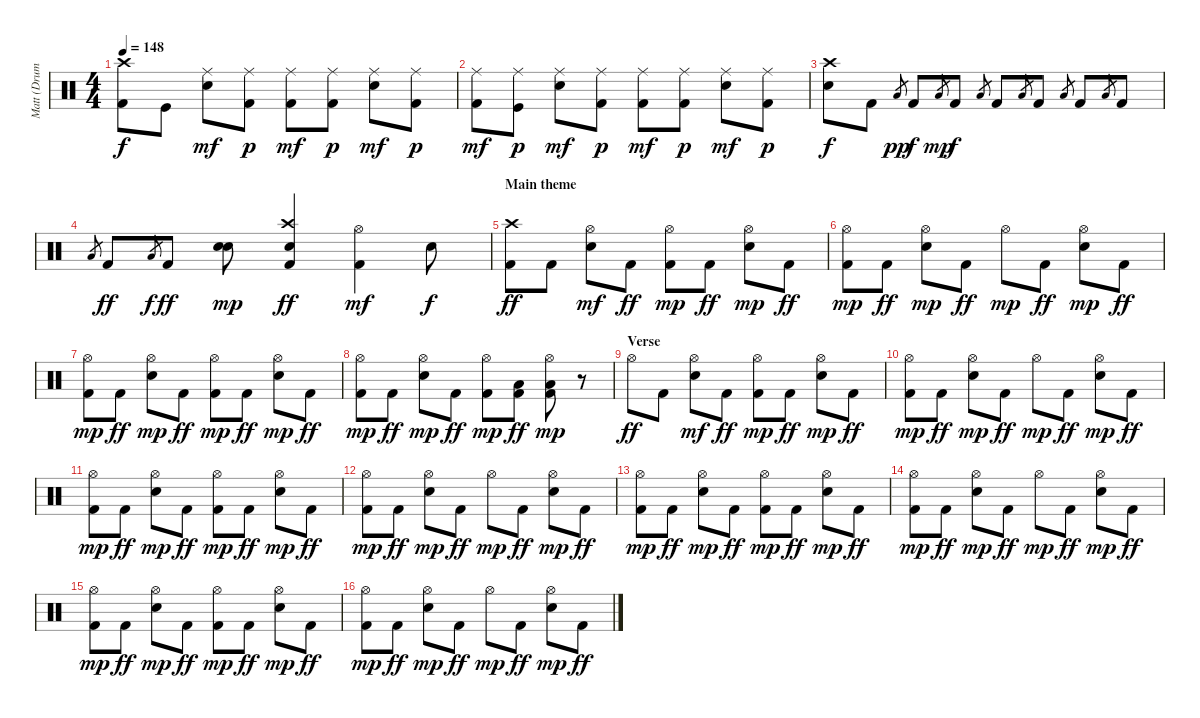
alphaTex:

\track ("Matt (Drums)" "Matt (Drum") {instrument percussion}
\staff {score}
\articulation defaults
\ts (4 4)
\tempo 148
\clef neutral
\ks c
("Kick (hit) 2" "Crash high (hit)").8{dy f} "Kick (hit)".8 ("Electric Snare (hit)" "Ride (middle)").8{dy mf} ("Kick (hit) 2" "Ride (middle)").8{dy p} ("Kick (hit) 2" "Ride (middle)").8{dy mf} ("Kick (hit) 2" "Ride (middle)").8{dy p} ("Electric Snare (hit)" "Ride (middle)").8{dy mf} ("Kick (hit) 2" "Ride (middle)").8{dy p} |
("Kick (hit) 2" "Ride (middle)").8{dy mf} ("Kick (hit)" "Ride (middle)").8{dy p} ("Electric Snare (hit)" "Ride (middle)").8{dy mf} ("Kick (hit) 2" "Ride (middle)").8{dy p} ("Kick (hit) 2" "Ride (middle)").8{dy mf} ("Kick (hit) 2" "Ride (middle)").8{dy p} ("Electric Snare (hit)" "Ride (middle)").8{dy mf} ("Kick (hit) 2" "Ride (middle)").8{dy p} |
("Electric Snare (hit)" "Crash high (hit)").8{dy f} "Kick (hit) 2".8 "Low Tom (hit)".8{gr dy pp} "Kick (hit) 2".8{dy f} "Low Tom (hit)".8{gr dy mp} "Kick (hit) 2".8{dy f} "Low Tom (hit)".8{gr} "Kick (hit) 2".8 "Low Tom (hit)".8{gr} "Kick (hit) 2".8 "Low Tom (hit)".8{gr} "Kick (hit) 2".8 "Low Tom (hit)".8{gr} "Kick (hit) 2".8 |
"Low Tom (hit)".8{gr} "Kick (hit) 2".8{dy ff} "Low Tom (hit)".8{gr dy f} "Kick (hit) 2".8{dy ff} ("Electric Snare (hit)" "Hand Clap (hit)").8{dy mp} ("Snare (hit) 2" "Kick (hit) 2" "Crash high (hit)").4{dy ff} ("Kick (hit) 2" "Hi-Hat (open)").4{dy mf} "Electric Snare (hit)".8{dy f} |
\section ("" "Main theme")
("Kick (hit) 2" "Crash high (hit)").8{dy ff} "Kick (hit) 2".8 ("Electric Snare (hit)" "Hi-Hat (open)").8{dy mf} "Kick (hit) 2".8{dy ff} ("Kick (hit) 2" "Hi-Hat (open)").8{dy mp} "Kick (hit) 2".8{dy ff} ("Electric Snare (hit)" "Hi-Hat (open)").8{dy mp} "Kick (hit) 2".8{dy ff} |
("Kick (hit) 2" "Hi-Hat (open)").8{dy mp} "Kick (hit) 2".8{dy ff} ("Electric Snare (hit)" "Hi-Hat (open)").8{dy mp} "Kick (hit) 2".8{dy ff} "Hi-Hat (open)".8{dy mp} "Kick (hit) 2".8{dy ff} ("Electric Snare (hit)" "Hi-Hat (open)").8{dy mp} "Kick (hit) 2".8{dy ff} |
("Kick (hit) 2" "Hi-Hat (open)").8{dy mp} "Kick (hit) 2".8{dy ff} ("Electric Snare (hit)" "Hi-Hat (open)").8{dy mp} "Kick (hit) 2".8{dy ff} ("Kick (hit) 2" "Hi-Hat (open)").8{dy mp} "Kick (hit) 2".8{dy ff} ("Electric Snare (hit)" "Hi-Hat (open)").8{dy mp} "Kick (hit) 2".8{dy ff} |
("Kick (hit) 2" "Hi-Hat (open)").8{dy mp} "Kick (hit) 2".8{dy ff} ("Electric Snare (hit)" "Hi-Hat (open)").8{dy mp} "Kick (hit) 2".8{dy ff} ("Kick (hit) 2" "Hi-Hat (open)").8{dy mp} ("Low Tom (hit)" "Kick (hit) 2").8{dy ff} ("Low Tom (hit)" "Kick (hit) 2" "Hi-Hat (open)").8{dy mp} r.8 |
\section ("" "Verse")
"Hi-Hat (open)".8{dy ff} "Kick (hit) 2".8 ("Electric Snare (hit)" "Hi-Hat (open)").8{dy mf} "Kick (hit) 2".8{dy ff} ("Kick (hit) 2" "Hi-Hat (open)").8{dy mp} "Kick (hit) 2".8{dy ff} ("Electric Snare (hit)" "Hi-Hat (open)").8{dy mp} "Kick (hit) 2".8{dy ff} |
("Kick (hit) 2" "Hi-Hat (open)").8{dy mp} "Kick (hit) 2".8{dy ff} ("Electric Snare (hit)" "Hi-Hat (open)").8{dy mp} "Kick (hit) 2".8{dy ff} "Hi-Hat (open)".8{dy mp} "Kick (hit) 2".8{dy ff} ("Electric Snare (hit)" "Hi-Hat (open)").8{dy mp} "Kick (hit) 2".8{dy ff} |
("Kick (hit) 2" "Hi-Hat (open)").8{dy mp} "Kick (hit) 2".8{dy ff} ("Electric Snare (hit)" "Hi-Hat (open)").8{dy mp} "Kick (hit) 2".8{dy ff} ("Kick (hit) 2" "Hi-Hat (open)").8{dy mp} "Kick (hit) 2".8{dy ff} ("Electric Snare (hit)" "Hi-Hat (open)").8{dy mp} "Kick (hit) 2".8{dy ff} |
("Kick (hit) 2" "Hi-Hat (open)").8{dy mp} "Kick (hit) 2".8{dy ff} ("Electric Snare (hit)" "Hi-Hat (open)").8{dy mp} "Kick (hit) 2".8{dy ff} "Hi-Hat (open)".8{dy mp} "Kick (hit) 2".8{dy ff} ("Electric Snare (hit)" "Hi-Hat (open)").8{dy mp} "Kick (hit) 2".8{dy ff} |
("Kick (hit) 2" "Hi-Hat (open)").8{dy mp} "Kick (hit) 2".8{dy ff} ("Electric Snare (hit)" "Hi-Hat (open)").8{dy mp} "Kick (hit) 2".8{dy ff} ("Kick (hit) 2" "Hi-Hat (open)").8{dy mp} "Kick (hit) 2".8{dy ff} ("Electric Snare (hit)" "Hi-Hat (open)").8{dy mp} "Kick (hit) 2".8{dy ff} |
("Kick (hit) 2" "Hi-Hat (open)").8{dy mp} "Kick (hit) 2".8{dy ff} ("Electric Snare (hit)" "Hi-Hat (open)").8{dy mp} "Kick (hit) 2".8{dy ff} "Hi-Hat (open)".8{dy mp} "Kick (hit) 2".8{dy ff} ("Electric Snare (hit)" "Hi-Hat (open)").8{dy mp} "Kick (hit) 2".8{dy ff} |
("Kick (hit) 2" "Hi-Hat (open)").8{dy mp} "Kick (hit) 2".8{dy ff} ("Electric Snare (hit)" "Hi-Hat (open)").8{dy mp} "Kick (hit) 2".8{dy ff} ("Kick (hit) 2" "Hi-Hat (open)").8{dy mp} "Kick (hit) 2".8{dy ff} ("Electric Snare (hit)" "Hi-Hat (open)").8{dy mp} "Kick (hit) 2".8{dy ff} |
("Kick (hit) 2" "Hi-Hat (open)").8{dy mp} "Kick (hit) 2".8{dy ff} ("Electric Snare (hit)" "Hi-Hat (open)").8{dy mp} "Kick (hit) 2".8{dy ff} "Hi-Hat (open)".8{dy mp} "Kick (hit) 2".8{dy ff} ("Electric Snare (hit)" "Hi-Hat (open)").8{dy mp} "Kick (hit) 2".8{dy ff}
